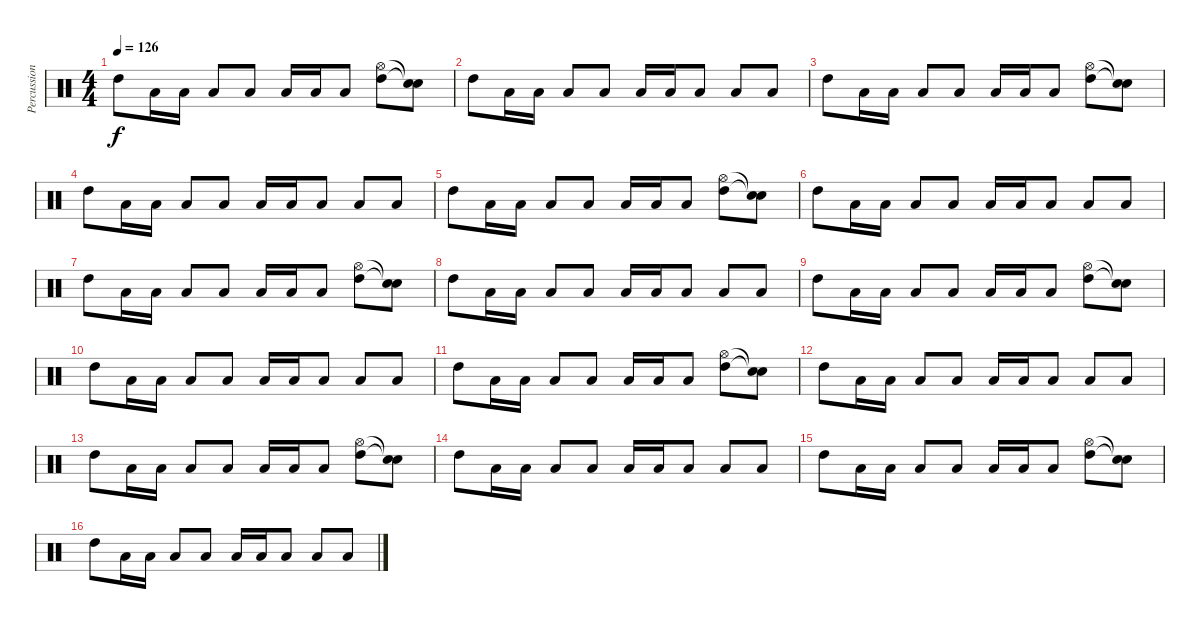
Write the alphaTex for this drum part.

\track ("Percussion" "Percussion") {instrument percussion}
\staff {score}
\articulation defaults
\ts (4 4)
\tempo 126
\clef neutral
\ks c "High Tom (hit)".8{dy f} "Low Tom (hit)".16 "Low Tom (hit)".16 "Low Tom (hit)".8 "Low Tom (hit)".8 "Low Tom (hit)".16 "Low Tom (hit)".16 "Low Tom (hit)".8
("High Tom (hit)" "Hi-Hat (open)").8 ("Snare (hit)"{t} "Snare (hit)"{t}).8 |
"High Tom (hit)".8 "Low Tom (hit)".16 "Low Tom (hit)".16 "Low Tom (hit)".8 "Low Tom (hit)".8 "Low Tom (hit)".16 "Low Tom (hit)".16 "Low Tom (hit)".8 "Low Tom (hit)".8 "Low Tom (hit)".8 |
"High Tom (hit)".8 "Low Tom (hit)".16 "Low Tom (hit)".16 "Low Tom (hit)".8 "Low Tom (hit)".8 "Low Tom (hit)".16 "Low Tom (hit)".16 "Low Tom (hit)".8 ("High Tom (hit)" "Hi-Hat (open)").8 ("Snare (hit)"{t} "Snare (hit)"{t}).8 |
"High Tom (hit)".8 "Low Tom (hit)".16 "Low Tom (hit)".16 "Low Tom (hit)".8 "Low Tom (hit)".8 "Low Tom (hit)".16 "Low Tom (hit)".16 "Low Tom (hit)".8 "Low Tom (hit)".8 "Low Tom (hit)".8 |
"High Tom (hit)".8 "Low Tom (hit)".16 "Low Tom (hit)".16 "Low Tom (hit)".8 "Low Tom (hit)".8 "Low Tom (hit)".16 "Low Tom (hit)".16 "Low Tom (hit)".8 ("High Tom (hit)" "Hi-Hat (open)").8 ("Snare (hit)"{t} "Snare (hit)"{t}).8 |
"High Tom (hit)".8 "Low Tom (hit)".16 "Low Tom (hit)".16 "Low Tom (hit)".8 "Low Tom (hit)".8 "Low Tom (hit)".16 "Low Tom (hit)".16 "Low Tom (hit)".8 "Low Tom (hit)".8 "Low Tom (hit)".8 |
"High Tom (hit)".8 "Low Tom (hit)".16 "Low Tom (hit)".16 "Low Tom (hit)".8 "Low Tom (hit)".8 "Low Tom (hit)".16 "Low Tom (hit)".16 "Low Tom (hit)".8 ("High Tom (hit)" "Hi-Hat (open)").8 ("Snare (hit)"{t} "Snare (hit)"{t}).8 |
"High Tom (hit)".8 "Low Tom (hit)".16 "Low Tom (hit)".16 "Low Tom (hit)".8 "Low Tom (hit)".8 "Low Tom (hit)".16 "Low Tom (hit)".16 "Low Tom (hit)".8 "Low Tom (hit)".8 "Low Tom (hit)".8 |
"High Tom (hit)".8 "Low Tom (hit)".16 "Low Tom (hit)".16 "Low Tom (hit)".8 "Low Tom (hit)".8 "Low Tom (hit)".16 "Low Tom (hit)".16 "Low Tom (hit)".8 ("High Tom (hit)" "Hi-Hat (open)").8 ("Snare (hit)"{t} "Snare (hit)"{t}).8 |
"High Tom (hit)".8 "Low Tom (hit)".16 "Low Tom (hit)".16 "Low Tom (hit)".8 "Low Tom (hit)".8 "Low Tom (hit)".16 "Low Tom (hit)".16 "Low Tom (hit)".8 "Low Tom (hit)".8 "Low Tom (hit)".8 |
"High Tom (hit)".8 "Low Tom (hit)".16 "Low Tom (hit)".16 "Low Tom (hit)".8 "Low Tom (hit)".8 "Low Tom (hit)".16 "Low Tom (hit)".16 "Low Tom (hit)".8 ("High Tom (hit)" "Hi-Hat (open)").8 ("Snare (hit)"{t} "Snare (hit)"{t}).8 |
"High Tom (hit)".8 "Low Tom (hit)".16 "Low Tom (hit)".16 "Low Tom (hit)".8 "Low Tom (hit)".8 "Low Tom (hit)".16 "Low Tom (hit)".16 "Low Tom (hit)".8 "Low Tom (hit)".8 "Low Tom (hit)".8 |
"High Tom (hit)".8 "Low Tom (hit)".16 "Low Tom (hit)".16 "Low Tom (hit)".8 "Low Tom (hit)".8 "Low Tom (hit)".16 "Low Tom (hit)".16 "Low Tom (hit)".8 ("High Tom (hit)" "Hi-Hat (open)").8 ("Snare (hit)"{t} "Snare (hit)"{t}).8 |
"High Tom (hit)".8 "Low Tom (hit)".16 "Low Tom (hit)".16 "Low Tom (hit)".8 "Low Tom (hit)".8 "Low Tom (hit)".16 "Low Tom (hit)".16 "Low Tom (hit)".8 "Low Tom (hit)".8 "Low Tom (hit)".8 |
"High Tom (hit)".8 "Low Tom (hit)".16 "Low Tom (hit)".16 "Low Tom (hit)".8 "Low Tom (hit)".8 "Low Tom (hit)".16 "Low Tom (hit)".16 "Low Tom (hit)".8 ("High Tom (hit)" "Hi-Hat (open)").8 ("Snare (hit)"{t} "Snare (hit)"{t}).8 |
"High Tom (hit)".8 "Low Tom (hit)".16 "Low Tom (hit)".16 "Low Tom (hit)".8 "Low Tom (hit)".8 "Low Tom (hit)".16 "Low Tom (hit)".16 "Low Tom (hit)".8 "Low Tom (hit)".8 "Low Tom (hit)".8
